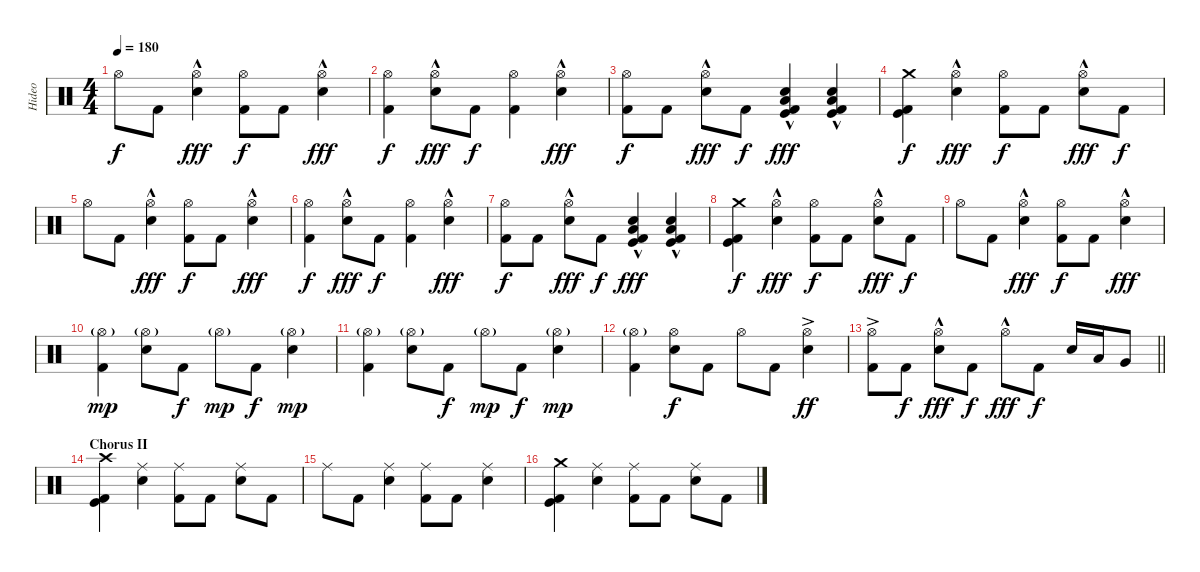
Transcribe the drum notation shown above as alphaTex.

\track ("Hideo" "Hideo") {instrument percussion}
\staff {score}
\articulation defaults
\ts (4 4)
\tempo 180
\clef neutral
\ks c "Hi-Hat (open)".8{dy f} "Kick (hit) 2".8
("Hi-Hat (open)"{hac} "Electric Snare (hit)").4{dy fff} ("Hi-Hat (open)" "Kick (hit) 2").8{dy f} "Kick (hit) 2".8 ("Hi-Hat (open)"{hac} "Electric Snare (hit)").4{dy fff} |
("Hi-Hat (open)" "Kick (hit) 2").4{dy f} ("Hi-Hat (open)"{hac} "Electric Snare (hit)").8{dy fff} "Kick (hit) 2".8{dy f} ("Hi-Hat (open)" "Kick (hit) 2").4 ("Hi-Hat (open)"{hac} "Electric Snare (hit)").4{dy fff} |
("Hi-Hat (open)" "Kick (hit) 2").8{dy f} "Kick (hit) 2".8 ("Hi-Hat (open)"{hac} "Electric Snare (hit)").8{dy fff} "Kick (hit) 2".8{dy f} ("Low Floor Tom (hit)" "Electric Snare (hit)"{hac} "Kick (hit)" "Kick (hit) 2").4{dy fff} ("Low Floor Tom (hit)" "Electric Snare (hit)"{hac} "Kick (hit) 2" "Kick (hit)").4 |
("Crash medium (hit)" "Kick (hit) 2" "Kick (hit)").4{dy f} ("Hi-Hat (open)"{hac} "Electric Snare (hit)").4{dy fff} ("Hi-Hat (open)" "Kick (hit) 2").8{dy f} "Kick (hit) 2".8 ("Hi-Hat (open)"{hac} "Electric Snare (hit)").8{dy fff} "Kick (hit) 2".8{dy f} |
"Hi-Hat (open)".8 "Kick (hit) 2".8 ("Hi-Hat (open)"{hac} "Electric Snare (hit)").4{dy fff} ("Hi-Hat (open)" "Kick (hit) 2").8{dy f} "Kick (hit) 2".8 ("Hi-Hat (open)"{hac} "Electric Snare (hit)").4{dy fff} |
("Hi-Hat (open)" "Kick (hit) 2").4{dy f} ("Hi-Hat (open)"{hac} "Electric Snare (hit)").8{dy fff} "Kick (hit) 2".8{dy f} ("Hi-Hat (open)" "Kick (hit) 2").4 ("Hi-Hat (open)"{hac} "Electric Snare (hit)").4{dy fff} |
("Hi-Hat (open)" "Kick (hit) 2").8{dy f} "Kick (hit) 2".8 ("Hi-Hat (open)"{hac} "Electric Snare (hit)").8{dy fff} "Kick (hit) 2".8{dy f} ("Low Floor Tom (hit)" "Electric Snare (hit)"{hac} "Kick (hit)" "Kick (hit) 2").4{dy fff} ("Low Floor Tom (hit)" "Electric Snare (hit)"{hac} "Kick (hit) 2" "Kick (hit)").4 |
("Crash medium (hit)" "Kick (hit) 2" "Kick (hit)").4{dy f} ("Hi-Hat (open)"{hac} "Electric Snare (hit)").4{dy fff} ("Hi-Hat (open)" "Kick (hit) 2").8{dy f} "Kick (hit) 2".8 ("Hi-Hat (open)"{hac} "Electric Snare (hit)").8{dy fff} "Kick (hit) 2".8{dy f} |
"Hi-Hat (open)".8 "Kick (hit) 2".8 ("Hi-Hat (open)"{hac} "Electric Snare (hit)").4{dy fff} ("Hi-Hat (open)" "Kick (hit) 2").8{dy f} "Kick (hit) 2".8 ("Hi-Hat (open)"{hac} "Electric Snare (hit)").4{dy fff} |
("Hi-Hat (open)"{g} "Kick (hit) 2").4{dy mp} ("Hi-Hat (open)"{g} "Electric Snare (hit)").8 "Kick (hit) 2".8{dy f} "Hi-Hat (open)"{g}.8{dy mp} "Kick (hit) 2".8{dy f} ("Hi-Hat (open)"{g} "Electric Snare (hit)").4{dy mp} |
("Hi-Hat (open)"{g} "Kick (hit) 2").4 ("Hi-Hat (open)"{g} "Electric Snare (hit)").8 "Kick (hit) 2".8{dy f} "Hi-Hat (open)"{g}.8{dy mp} "Kick (hit) 2".8{dy f} ("Hi-Hat (open)"{g} "Electric Snare (hit)").4{dy mp} |
("Hi-Hat (open)"{g} "Kick (hit) 2").4 ("Hi-Hat (open)" "Electric Snare (hit)").8{dy f} "Kick (hit) 2".8 "Hi-Hat (open)".8 "Kick (hit) 2".8 ("Hi-Hat (open)"{ac} "Electric Snare (hit)").4{dy ff} |
\barLineRight lightlight
("Hi-Hat (open)"{ac} "Kick (hit) 2").8 "Kick (hit) 2".8{dy f} ("Hi-Hat (open)"{hac} "Electric Snare (hit)").8{dy fff} "Kick (hit) 2".8{dy f} "Hi-Hat (open)"{hac}.8{dy fff} "Kick (hit) 2".8{dy f} "Electric Snare (hit)".16 "Low Tom (hit)".16 "Very Low Tom (hit)".8 |
\section ("" "Chorus II")
("Crash high (hit)" "Kick (hit) 2" "Kick (hit)").4 ("Ride (middle)" "Electric Snare (hit)").4 ("Ride (middle)" "Kick (hit) 2").8 "Kick (hit) 2".8 ("Ride (middle)" "Electric Snare (hit)").8 "Kick (hit) 2".8 |
"Ride (middle)".8 "Kick (hit) 2".8 ("Ride (middle)" "Electric Snare (hit)").4 ("Ride (middle)" "Kick (hit) 2").8 "Kick (hit) 2".8 ("Ride (middle)" "Electric Snare (hit)").4 |
("Crash medium (hit)" "Kick (hit) 2" "Kick (hit)").4 ("Ride (middle)" "Electric Snare (hit)").4 ("Ride (middle)" "Kick (hit) 2").8 "Kick (hit) 2".8 ("Ride (middle)" "Electric Snare (hit)").8 "Kick (hit) 2".8
